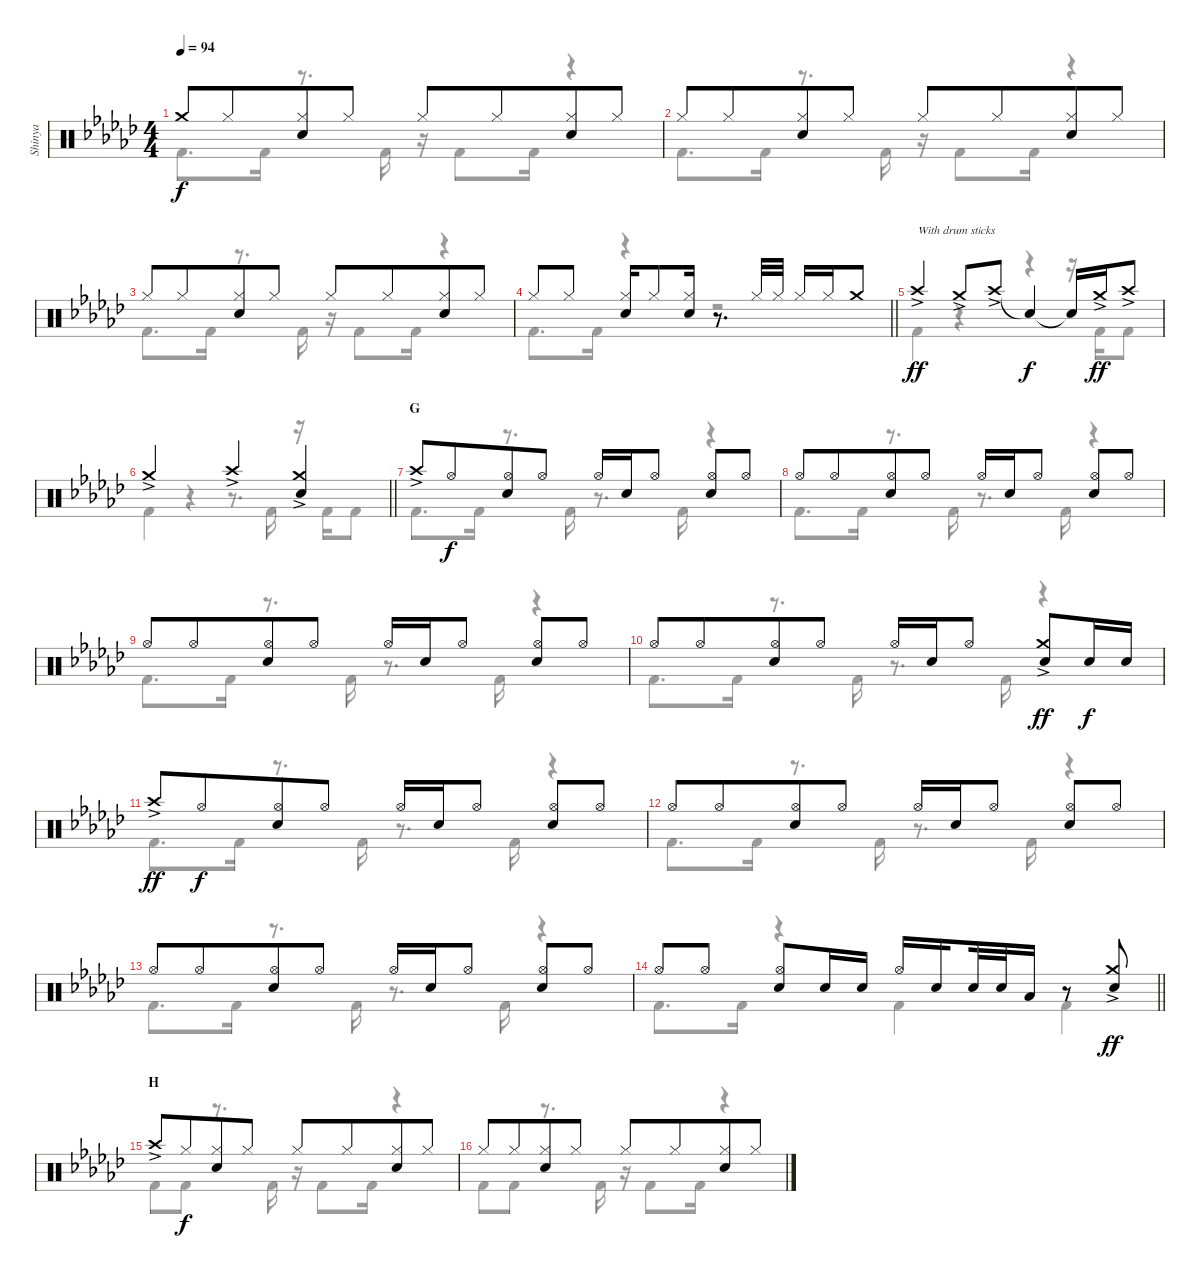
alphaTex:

\track ("Shinya" "Shinya") {instrument percussion}
\staff {score}
\articulation defaults
\voice
\ts (4 4)
\tempo 94
\clef neutral
\ks ebminor "Crash medium (hit)".8{dy f} "Hi-Hat (closed)".8{beam merge}
("Hi-Hat (closed)" "Snare (hit) 2").8 "Hi-Hat (closed)".8 "Hi-Hat (closed)".8 "Hi-Hat (closed)".8{beam merge} ("Hi-Hat (closed)" "Snare (hit) 2").8 "Hi-Hat (closed)".8 |
"Hi-Hat (closed)".8 "Hi-Hat (closed)".8{beam merge} ("Hi-Hat (closed)" "Snare (hit) 2").8 "Hi-Hat (closed)".8 "Hi-Hat (closed)".8 "Hi-Hat (closed)".8{beam merge} ("Hi-Hat (closed)" "Snare (hit) 2").8 "Hi-Hat (closed)".8 |
"Hi-Hat (closed)".8 "Hi-Hat (closed)".8{beam merge} ("Hi-Hat (closed)" "Snare (hit) 2").8 "Hi-Hat (closed)".8 "Hi-Hat (closed)".8 "Hi-Hat (closed)".8{beam merge} ("Hi-Hat (closed)" "Snare (hit) 2").8 "Hi-Hat (closed)".8 |
\barLineRight lightlight "Hi-Hat (closed)".8 "Hi-Hat (closed)".8
("Hi-Hat (closed)" "Snare (hit) 2").16 "Hi-Hat (closed)".8 ("Hi-Hat (closed)" "Snare (hit) 2").16 r.8{d} "Hi-Hat (closed)".32 "Hi-Hat (closed)".32 "Hi-Hat (closed)".16 "Hi-Hat (closed)".16 "Crash medium (hit)".8 |
\section ("" "")
"Crash high (hit)"{ac}.4{txt "With drum sticks" dy ff volume 16} "Crash medium (hit)"{ac}.8 "Crash high (hit)"{ac}.8 "Snare (hit)"{t}.4{dy f} "Snare (hit)"{t}.16 "Crash medium (hit)"{ac}.16{dy ff} "Crash high (hit)"{ac}.8 |
\barLineRight lightlight "Crash medium (hit)"{ac}.2 "Crash high (hit)"{ac}.4
("Crash medium (hit)"{ac} "Snare (hit) 2").4 |
\section ("" "G")
"Crash high (hit)"{ac}.8 "Hi-Hat (open)".8{dy f beam merge} ("Hi-Hat (open)" "Snare (hit) 2").8 "Hi-Hat (open)".8 "Hi-Hat (open)".16 "Snare (hit) 2".16 "Hi-Hat (open)".8 ("Hi-Hat (open)" "Snare (hit) 2").8 "Hi-Hat (open)".8 |
"Hi-Hat (open)".8 "Hi-Hat (open)".8{beam merge} ("Hi-Hat (open)" "Snare (hit) 2").8 "Hi-Hat (open)".8 "Hi-Hat (open)".16 "Snare (hit) 2".16 "Hi-Hat (open)".8 ("Hi-Hat (open)" "Snare (hit) 2").8 "Hi-Hat (open)".8 |
"Hi-Hat (open)".8 "Hi-Hat (open)".8{beam merge} ("Hi-Hat (open)" "Snare (hit) 2").8 "Hi-Hat (open)".8 "Hi-Hat (open)".16 "Snare (hit) 2".16 "Hi-Hat (open)".8 ("Hi-Hat (open)" "Snare (hit) 2").8 "Hi-Hat (open)".8 |
"Hi-Hat (open)".8 "Hi-Hat (open)".8{beam merge} ("Hi-Hat (open)" "Snare (hit) 2").8 "Hi-Hat (open)".8 "Hi-Hat (open)".16 "Snare (hit) 2".16 "Hi-Hat (open)".8 ("Crash medium (hit)"{ac} "Snare (hit) 2").8{dy ff} "Snare (hit) 2".16{dy f} "Snare (hit) 2".16 |
"Crash high (hit)"{ac}.8{dy ff} "Hi-Hat (open)".8{dy f beam merge} ("Hi-Hat (open)" "Snare (hit) 2").8 "Hi-Hat (open)".8 "Hi-Hat (open)".16 "Snare (hit) 2".16 "Hi-Hat (open)".8 ("Hi-Hat (open)" "Snare (hit) 2").8 "Hi-Hat (open)".8 |
"Hi-Hat (open)".8 "Hi-Hat (open)".8{beam merge} ("Hi-Hat (open)" "Snare (hit) 2").8 "Hi-Hat (open)".8 "Hi-Hat (open)".16 "Snare (hit) 2".16 "Hi-Hat (open)".8 ("Hi-Hat (open)" "Snare (hit) 2").8 "Hi-Hat (open)".8 |
"Hi-Hat (open)".8 "Hi-Hat (open)".8{beam merge} ("Hi-Hat (open)" "Snare (hit) 2").8 "Hi-Hat (open)".8 "Hi-Hat (open)".16 "Snare (hit) 2".16 "Hi-Hat (open)".8 ("Hi-Hat (open)" "Snare (hit) 2").8 "Hi-Hat (open)".8 |
\barLineRight lightlight "Hi-Hat (open)".8 "Hi-Hat (open)".8
("Hi-Hat (open)" "Snare (hit) 2").8 "Snare (hit) 2".16 "Snare (hit) 2".16 "Hi-Hat (open)".16 "Snare (hit) 2".16{beam splitsecondary} "Snare (hit) 2".32 "Snare (hit) 2".32 "Low Tom (hit)".16 r.8 ("Crash medium (hit)"{ac} "Snare (hit) 2").8{dy ff} |
\section ("" "H")
"Crash high (hit)"{ac}.8 "Hi-Hat (closed)".8{dy f beam merge} ("Hi-Hat (closed)" "Snare (hit) 2").8 "Hi-Hat (closed)".8 "Hi-Hat (closed)".8 "Hi-Hat (closed)".8{beam merge} ("Hi-Hat (closed)" "Snare (hit) 2").8 "Hi-Hat (closed)".8 |
"Hi-Hat (closed)".8 "Hi-Hat (closed)".8{beam merge} ("Hi-Hat (closed)" "Snare (hit) 2").8 "Hi-Hat (closed)".8 "Hi-Hat (closed)".8 "Hi-Hat (closed)".8{beam merge} ("Hi-Hat (closed)" "Snare (hit) 2").8 "Hi-Hat (closed)".8
\voice
\clef neutral
\ottava regular
\simile none
\ks ebminor "Kick (hit) 2".8{d dy f} "Kick (hit) 2".16
r.8{d} "Kick (hit) 2".16 r.16 "Kick (hit) 2".8 "Kick (hit) 2".16 r.4 |
"Kick (hit) 2".8{d} "Kick (hit) 2".16 r.8{d} "Kick (hit) 2".16 r.16 "Kick (hit) 2".8 "Kick (hit) 2".16 r.4 |
"Kick (hit) 2".8{d} "Kick (hit) 2".16 r.8{d} "Kick (hit) 2".16 r.16 "Kick (hit) 2".8 "Kick (hit) 2".16 r.4 |
\barLineRight lightlight "Kick (hit) 2".8{d} "Kick (hit) 2".16
r.4 r.2 |
"Kick (hit) 2".4 r.4 r.4 r.16 "Kick (hit) 2".16 "Kick (hit) 2".8 |
\barLineRight lightlight "Kick (hit) 2".4
r.4 r.8{d} "Kick (hit) 2".16 r.16 "Kick (hit) 2".16 "Kick (hit) 2".8 |
"Kick (hit) 2".8{d} "Kick (hit) 2".16 r.8{d} "Kick (hit) 2".16 r.8{d} "Kick (hit) 2".16 r.4 |
"Kick (hit) 2".8{d} "Kick (hit) 2".16 r.8{d} "Kick (hit) 2".16 r.8{d} "Kick (hit) 2".16 r.4 |
"Kick (hit) 2".8{d} "Kick (hit) 2".16 r.8{d} "Kick (hit) 2".16 r.8{d} "Kick (hit) 2".16 r.4 |
"Kick (hit) 2".8{d} "Kick (hit) 2".16 r.8{d} "Kick (hit) 2".16 r.8{d} "Kick (hit) 2".16 r.4 |
"Kick (hit) 2".8{d} "Kick (hit) 2".16 r.8{d} "Kick (hit) 2".16 r.8{d} "Kick (hit) 2".16 r.4 |
"Kick (hit) 2".8{d} "Kick (hit) 2".16 r.8{d} "Kick (hit) 2".16 r.8{d} "Kick (hit) 2".16 r.4 |
"Kick (hit) 2".8{d} "Kick (hit) 2".16 r.8{d} "Kick (hit) 2".16 r.8{d} "Kick (hit) 2".16 r.4 |
\barLineRight lightlight "Kick (hit) 2".8{d} "Kick (hit) 2".16
r.4 "Kick (hit) 2".4 "Kick (hit) 2".4 |
"Kick (hit) 2".8 "Kick (hit) 2".8 r.8{d} "Kick (hit) 2".16 r.16 "Kick (hit) 2".8 "Kick (hit) 2".16 r.4 |
"Kick (hit) 2".8 "Kick (hit) 2".8 r.8{d} "Kick (hit) 2".16 r.16 "Kick (hit) 2".8 "Kick (hit) 2".16 r.4
